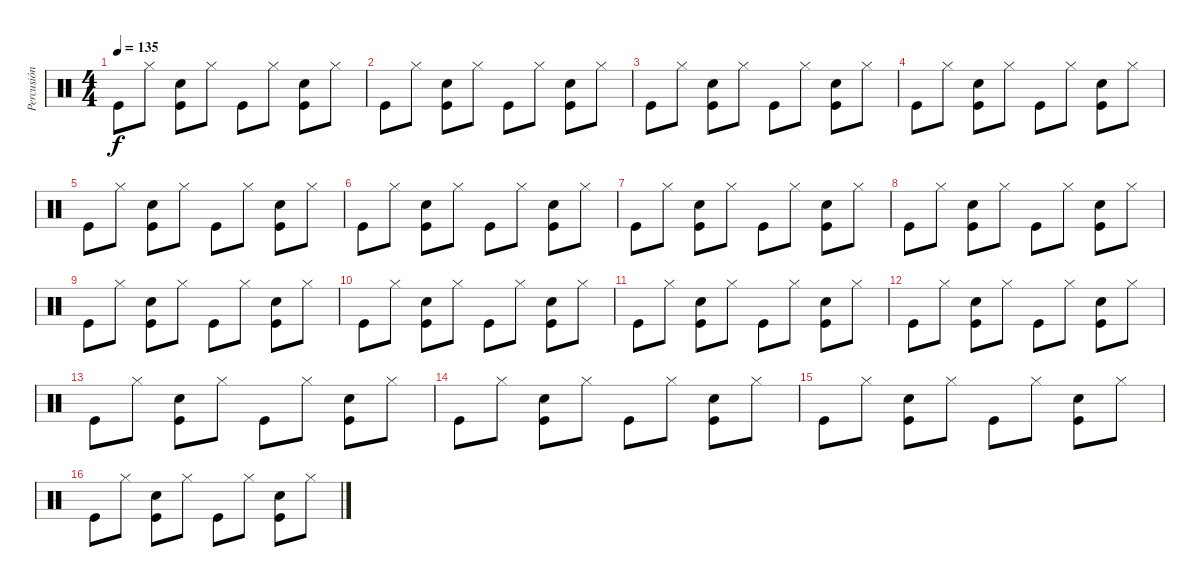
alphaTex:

\track ("Percusión" "Percusión") {instrument percussion}
\staff {score}
\articulation defaults
\ts (4 4)
\tempo 135
\clef neutral
\ks c "Kick (hit)".8{dy f volume 16} "Hi-Hat (closed)".8
("Hand Clap (hit)" "Kick (hit)").8 "Hi-Hat (closed)".8 "Kick (hit)".8 "Hi-Hat (closed)".8 ("Hand Clap (hit)" "Kick (hit)").8 "Hi-Hat (closed)".8 |
"Kick (hit)".8 "Hi-Hat (closed)".8 ("Hand Clap (hit)" "Kick (hit)").8 "Hi-Hat (closed)".8 "Kick (hit)".8 "Hi-Hat (closed)".8 ("Hand Clap (hit)" "Kick (hit)").8 "Hi-Hat (closed)".8 |
"Kick (hit)".8 "Hi-Hat (closed)".8 ("Hand Clap (hit)" "Kick (hit)").8 "Hi-Hat (closed)".8 "Kick (hit)".8 "Hi-Hat (closed)".8 ("Hand Clap (hit)" "Kick (hit)").8 "Hi-Hat (closed)".8 |
"Kick (hit)".8 "Hi-Hat (closed)".8 ("Hand Clap (hit)" "Kick (hit)").8 "Hi-Hat (closed)".8 "Kick (hit)".8 "Hi-Hat (closed)".8 ("Hand Clap (hit)" "Kick (hit)").8 "Hi-Hat (closed)".8 |
"Kick (hit)".8 "Hi-Hat (closed)".8 ("Hand Clap (hit)" "Kick (hit)").8 "Hi-Hat (closed)".8 "Kick (hit)".8 "Hi-Hat (closed)".8 ("Hand Clap (hit)" "Kick (hit)").8 "Hi-Hat (closed)".8 |
"Kick (hit)".8 "Hi-Hat (closed)".8 ("Hand Clap (hit)" "Kick (hit)").8 "Hi-Hat (closed)".8 "Kick (hit)".8 "Hi-Hat (closed)".8 ("Hand Clap (hit)" "Kick (hit)").8 "Hi-Hat (closed)".8 |
"Kick (hit)".8 "Hi-Hat (closed)".8 ("Hand Clap (hit)" "Kick (hit)").8 "Hi-Hat (closed)".8 "Kick (hit)".8 "Hi-Hat (closed)".8 ("Hand Clap (hit)" "Kick (hit)").8 "Hi-Hat (closed)".8 |
"Kick (hit)".8 "Hi-Hat (closed)".8 ("Hand Clap (hit)" "Kick (hit)").8 "Hi-Hat (closed)".8 "Kick (hit)".8 "Hi-Hat (closed)".8 ("Hand Clap (hit)" "Kick (hit)").8 "Hi-Hat (closed)".8 |
"Kick (hit)".8 "Hi-Hat (closed)".8 ("Hand Clap (hit)" "Kick (hit)").8 "Hi-Hat (closed)".8 "Kick (hit)".8 "Hi-Hat (closed)".8 ("Hand Clap (hit)" "Kick (hit)").8 "Hi-Hat (closed)".8 |
"Kick (hit)".8 "Hi-Hat (closed)".8 ("Hand Clap (hit)" "Kick (hit)").8 "Hi-Hat (closed)".8 "Kick (hit)".8 "Hi-Hat (closed)".8 ("Hand Clap (hit)" "Kick (hit)").8 "Hi-Hat (closed)".8 |
"Kick (hit)".8 "Hi-Hat (closed)".8 ("Hand Clap (hit)" "Kick (hit)").8 "Hi-Hat (closed)".8 "Kick (hit)".8 "Hi-Hat (closed)".8 ("Hand Clap (hit)" "Kick (hit)").8 "Hi-Hat (closed)".8 |
"Kick (hit)".8 "Hi-Hat (closed)".8 ("Hand Clap (hit)" "Kick (hit)").8 "Hi-Hat (closed)".8 "Kick (hit)".8 "Hi-Hat (closed)".8 ("Hand Clap (hit)" "Kick (hit)").8 "Hi-Hat (closed)".8 |
"Kick (hit)".8 "Hi-Hat (closed)".8 ("Hand Clap (hit)" "Kick (hit)").8 "Hi-Hat (closed)".8 "Kick (hit)".8 "Hi-Hat (closed)".8 ("Hand Clap (hit)" "Kick (hit)").8 "Hi-Hat (closed)".8 |
"Kick (hit)".8 "Hi-Hat (closed)".8 ("Hand Clap (hit)" "Kick (hit)").8 "Hi-Hat (closed)".8 "Kick (hit)".8 "Hi-Hat (closed)".8 ("Hand Clap (hit)" "Kick (hit)").8 "Hi-Hat (closed)".8 |
"Kick (hit)".8 "Hi-Hat (closed)".8 ("Hand Clap (hit)" "Kick (hit)").8 "Hi-Hat (closed)".8 "Kick (hit)".8 "Hi-Hat (closed)".8 ("Hand Clap (hit)" "Kick (hit)").8 "Hi-Hat (closed)".8 |
"Kick (hit)".8 "Hi-Hat (closed)".8 ("Hand Clap (hit)" "Kick (hit)").8 "Hi-Hat (closed)".8 "Kick (hit)".8 "Hi-Hat (closed)".8 ("Hand Clap (hit)" "Kick (hit)").8 "Hi-Hat (closed)".8
